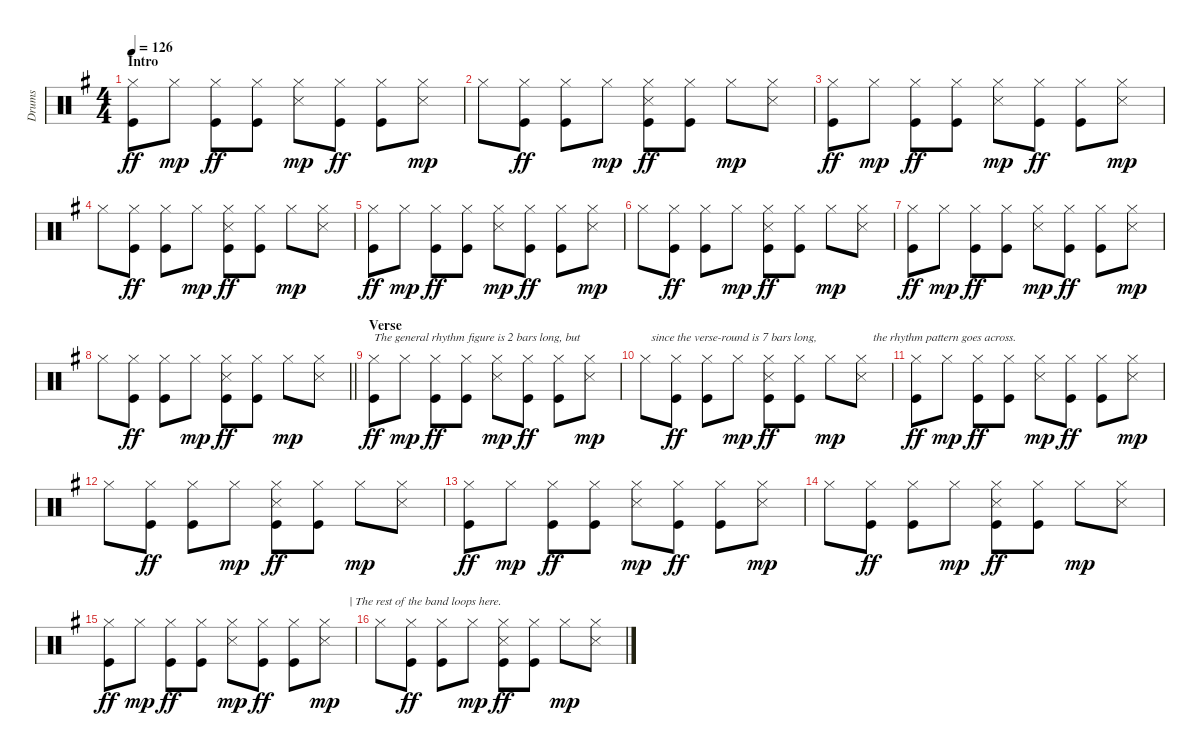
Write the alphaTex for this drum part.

\track ("Drums" "Drums") {instrument percussion}
\staff {score}
\articulation defaults
\ts (4 4)
\section ("" "Intro")
\tempo 126
\clef neutral
\ks eminor
("Hi-Hat (closed)" "Kick (hit)").8{dy ff} "Hi-Hat (closed)".8{dy mp} ("Hi-Hat (closed)" "Kick (hit)").8{dy ff} ("Hi-Hat (closed)" "Kick (hit)").8 ("Hi-Hat (closed)" "Snare (side stick) 3").8{dy mp} ("Hi-Hat (closed)" "Kick (hit)").8{dy ff} ("Hi-Hat (closed)" "Kick (hit)").8 ("Hi-Hat (closed)" "Snare (side stick) 3").8{dy mp} |
"Hi-Hat (closed)".8 ("Hi-Hat (closed)" "Kick (hit)").8{dy ff} ("Hi-Hat (closed)" "Kick (hit)").8 "Hi-Hat (closed)".8{dy mp} ("Hi-Hat (closed)" "Snare (side stick) 3" "Kick (hit)").8{dy ff} ("Hi-Hat (closed)" "Kick (hit)").8 "Hi-Hat (closed)".8{dy mp} ("Hi-Hat (closed)" "Snare (side stick) 3").8 |
("Hi-Hat (closed)" "Kick (hit)").8{dy ff} "Hi-Hat (closed)".8{dy mp} ("Hi-Hat (closed)" "Kick (hit)").8{dy ff} ("Hi-Hat (closed)" "Kick (hit)").8 ("Hi-Hat (closed)" "Snare (side stick) 3").8{dy mp} ("Hi-Hat (closed)" "Kick (hit)").8{dy ff} ("Hi-Hat (closed)" "Kick (hit)").8 ("Hi-Hat (closed)" "Snare (side stick) 3").8{dy mp} |
"Hi-Hat (closed)".8 ("Hi-Hat (closed)" "Kick (hit)").8{dy ff} ("Hi-Hat (closed)" "Kick (hit)").8 "Hi-Hat (closed)".8{dy mp} ("Hi-Hat (closed)" "Snare (side stick) 3" "Kick (hit)").8{dy ff} ("Hi-Hat (closed)" "Kick (hit)").8 "Hi-Hat (closed)".8{dy mp} ("Hi-Hat (closed)" "Snare (side stick) 3").8 |
("Hi-Hat (closed)" "Kick (hit)").8{dy ff} "Hi-Hat (closed)".8{dy mp} ("Hi-Hat (closed)" "Kick (hit)").8{dy ff} ("Hi-Hat (closed)" "Kick (hit)").8 ("Hi-Hat (closed)" "Snare (side stick) 3").8{dy mp} ("Hi-Hat (closed)" "Kick (hit)").8{dy ff} ("Hi-Hat (closed)" "Kick (hit)").8 ("Hi-Hat (closed)" "Snare (side stick) 3").8{dy mp} |
"Hi-Hat (closed)".8 ("Hi-Hat (closed)" "Kick (hit)").8{dy ff} ("Hi-Hat (closed)" "Kick (hit)").8 "Hi-Hat (closed)".8{dy mp} ("Hi-Hat (closed)" "Snare (side stick) 3" "Kick (hit)").8{dy ff} ("Hi-Hat (closed)" "Kick (hit)").8 "Hi-Hat (closed)".8{dy mp} ("Hi-Hat (closed)" "Snare (side stick) 3").8 |
("Hi-Hat (closed)" "Kick (hit)").8{dy ff} "Hi-Hat (closed)".8{dy mp} ("Hi-Hat (closed)" "Kick (hit)").8{dy ff} ("Hi-Hat (closed)" "Kick (hit)").8 ("Hi-Hat (closed)" "Snare (side stick) 3").8{dy mp} ("Hi-Hat (closed)" "Kick (hit)").8{dy ff} ("Hi-Hat (closed)" "Kick (hit)").8 ("Hi-Hat (closed)" "Snare (side stick) 3").8{dy mp} |
\barLineRight lightlight "Hi-Hat (closed)".8
("Hi-Hat (closed)" "Kick (hit)").8{dy ff} ("Hi-Hat (closed)" "Kick (hit)").8 "Hi-Hat (closed)".8{dy mp} ("Hi-Hat (closed)" "Snare (side stick) 3" "Kick (hit)").8{dy ff} ("Hi-Hat (closed)" "Kick (hit)").8 "Hi-Hat (closed)".8{dy mp} ("Hi-Hat (closed)" "Snare (side stick) 3").8 |
\section ("" "Verse")
("Hi-Hat (closed)" "Kick (hit)").8{txt "The general rhythm figure is 2 bars long, but" dy ff} "Hi-Hat (closed)".8{dy mp} ("Hi-Hat (closed)" "Kick (hit)").8{dy ff} ("Hi-Hat (closed)" "Kick (hit)").8 ("Hi-Hat (closed)" "Snare (side stick) 3").8{dy mp} ("Hi-Hat (closed)" "Kick (hit)").8{dy ff} ("Hi-Hat (closed)" "Kick (hit)").8 ("Hi-Hat (closed)" "Snare (side stick) 3").8{dy mp} |
"Hi-Hat (closed)".8{txt "  since the verse-round is 7 bars long,"} ("Hi-Hat (closed)" "Kick (hit)").8{dy ff} ("Hi-Hat (closed)" "Kick (hit)").8 "Hi-Hat (closed)".8{dy mp} ("Hi-Hat (closed)" "Snare (side stick) 3" "Kick (hit)").8{dy ff} ("Hi-Hat (closed)" "Kick (hit)").8 "Hi-Hat (closed)".8{dy mp} ("Hi-Hat (closed)" "Snare (side stick) 3").8{txt "    the rhythm pattern goes across."} |
("Hi-Hat (closed)" "Kick (hit)").8{dy ff} "Hi-Hat (closed)".8{dy mp} ("Hi-Hat (closed)" "Kick (hit)").8{dy ff} ("Hi-Hat (closed)" "Kick (hit)").8 ("Hi-Hat (closed)" "Snare (side stick) 3").8{dy mp} ("Hi-Hat (closed)" "Kick (hit)").8{dy ff} ("Hi-Hat (closed)" "Kick (hit)").8 ("Hi-Hat (closed)" "Snare (side stick) 3").8{dy mp} |
"Hi-Hat (closed)".8 ("Hi-Hat (closed)" "Kick (hit)").8{dy ff} ("Hi-Hat (closed)" "Kick (hit)").8 "Hi-Hat (closed)".8{dy mp} ("Hi-Hat (closed)" "Snare (side stick) 3" "Kick (hit)").8{dy ff} ("Hi-Hat (closed)" "Kick (hit)").8 "Hi-Hat (closed)".8{dy mp} ("Hi-Hat (closed)" "Snare (side stick) 3").8 |
("Hi-Hat (closed)" "Kick (hit)").8{dy ff} "Hi-Hat (closed)".8{dy mp} ("Hi-Hat (closed)" "Kick (hit)").8{dy ff} ("Hi-Hat (closed)" "Kick (hit)").8 ("Hi-Hat (closed)" "Snare (side stick) 3").8{dy mp} ("Hi-Hat (closed)" "Kick (hit)").8{dy ff} ("Hi-Hat (closed)" "Kick (hit)").8 ("Hi-Hat (closed)" "Snare (side stick) 3").8{dy mp} |
"Hi-Hat (closed)".8 ("Hi-Hat (closed)" "Kick (hit)").8{dy ff} ("Hi-Hat (closed)" "Kick (hit)").8 "Hi-Hat (closed)".8{dy mp} ("Hi-Hat (closed)" "Snare (side stick) 3" "Kick (hit)").8{dy ff} ("Hi-Hat (closed)" "Kick (hit)").8 "Hi-Hat (closed)".8{dy mp} ("Hi-Hat (closed)" "Snare (side stick) 3").8 |
("Hi-Hat (closed)" "Kick (hit)").8{dy ff} "Hi-Hat (closed)".8{dy mp} ("Hi-Hat (closed)" "Kick (hit)").8{dy ff} ("Hi-Hat (closed)" "Kick (hit)").8 ("Hi-Hat (closed)" "Snare (side stick) 3").8{dy mp} ("Hi-Hat (closed)" "Kick (hit)").8{dy ff} ("Hi-Hat (closed)" "Kick (hit)").8 ("Hi-Hat (closed)" "Snare (side stick) 3").8{txt "        | The rest of the band loops here." dy mp} |
"Hi-Hat (closed)".8 ("Hi-Hat (closed)" "Kick (hit)").8{dy ff} ("Hi-Hat (closed)" "Kick (hit)").8 "Hi-Hat (closed)".8{dy mp} ("Hi-Hat (closed)" "Snare (side stick) 3" "Kick (hit)").8{dy ff} ("Hi-Hat (closed)" "Kick (hit)").8 "Hi-Hat (closed)".8{dy mp} ("Hi-Hat (closed)" "Snare (side stick) 3").8
